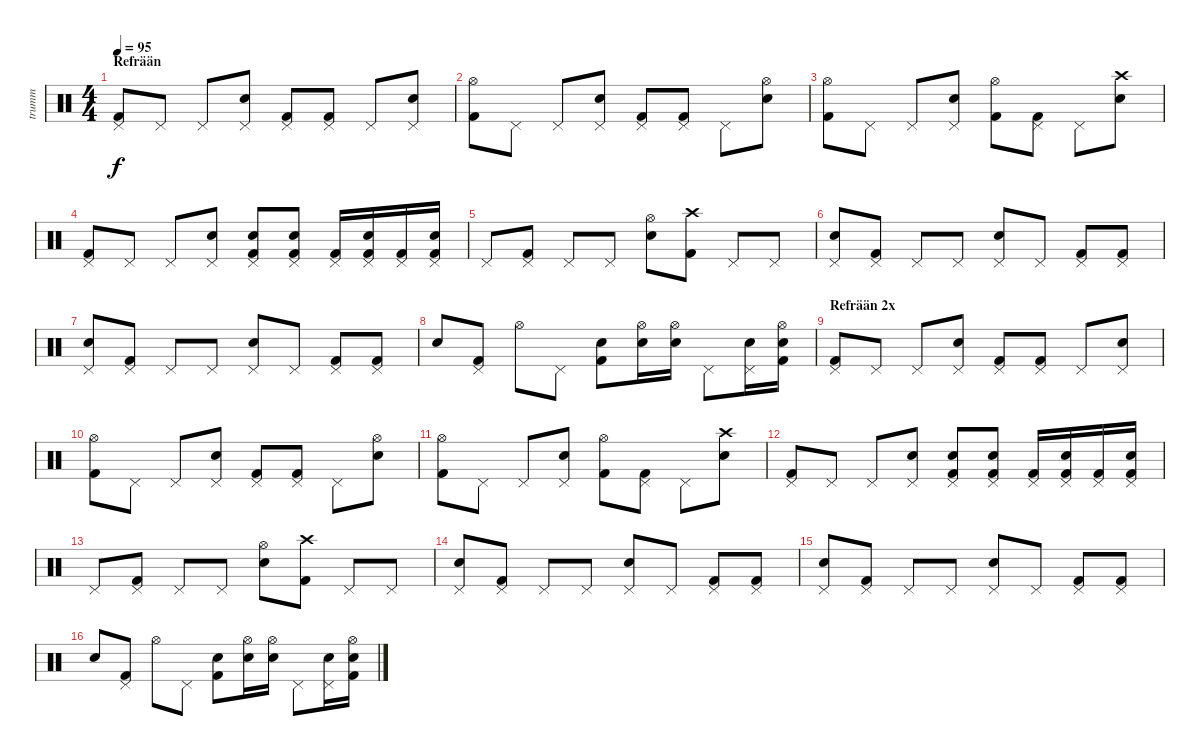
\track ("trumm" "trumm") {instrument percussion}
\staff {score}
\articulation defaults
\ts (4 4)
\section ("" "Refrään")
\tempo 95
\clef neutral
\ks c
("Pedal Hi-Hat (hit)" "Kick (hit) 2").8{dy f} "Pedal Hi-Hat (hit)".8 "Pedal Hi-Hat (hit)".8 ("Pedal Hi-Hat (hit)" "Snare (hit) 2").8 ("Pedal Hi-Hat (hit)" "Kick (hit) 2").8 ("Pedal Hi-Hat (hit)" "Kick (hit) 2").8 "Pedal Hi-Hat (hit)".8 ("Pedal Hi-Hat (hit)" "Snare (hit) 2").8 |
("Hi-Hat (open)" "Kick (hit) 2").8 "Pedal Hi-Hat (hit)".8 "Pedal Hi-Hat (hit)".8 ("Pedal Hi-Hat (hit)" "Snare (hit) 2").8 ("Pedal Hi-Hat (hit)" "Kick (hit) 2").8 ("Pedal Hi-Hat (hit)" "Kick (hit) 2").8 "Pedal Hi-Hat (hit)".8 ("Hi-Hat (open)" "Snare (hit) 2").8 |
("Hi-Hat (open)" "Kick (hit) 2").8 "Pedal Hi-Hat (hit)".8 "Pedal Hi-Hat (hit)".8 ("Pedal Hi-Hat (hit)" "Snare (hit) 2").8 ("Hi-Hat (open)" "Kick (hit) 2").8 ("Pedal Hi-Hat (hit)" "Kick (hit) 2").8 "Pedal Hi-Hat (hit)".8 ("Crash high (hit)" "Snare (hit) 2").8 |
("Pedal Hi-Hat (hit)" "Kick (hit) 2").8 "Pedal Hi-Hat (hit)".8 "Pedal Hi-Hat (hit)".8 ("Pedal Hi-Hat (hit)" "Snare (hit) 2").8 ("Pedal Hi-Hat (hit)" "Snare (hit) 2" "Kick (hit) 2").8 ("Pedal Hi-Hat (hit)" "Snare (hit) 2" "Kick (hit) 2").8 ("Pedal Hi-Hat (hit)" "Kick (hit) 2").16 ("Pedal Hi-Hat (hit)" "Snare (hit) 2" "Kick (hit) 2").16 ("Pedal Hi-Hat (hit)" "Kick (hit) 2").16 ("Pedal Hi-Hat (hit)" "Snare (hit) 2" "Kick (hit) 2").16 |
"Pedal Hi-Hat (hit)".8 ("Pedal Hi-Hat (hit)" "Kick (hit) 2").8 "Pedal Hi-Hat (hit)".8 "Pedal Hi-Hat (hit)".8 ("Hi-Hat (open)" "Snare (hit) 2").8 ("Crash high (hit)" "Kick (hit) 2").8 "Pedal Hi-Hat (hit)".8 "Pedal Hi-Hat (hit)".8 |
("Pedal Hi-Hat (hit)" "Snare (hit) 2").8 ("Pedal Hi-Hat (hit)" "Kick (hit) 2").8 "Pedal Hi-Hat (hit)".8 "Pedal Hi-Hat (hit)".8 ("Pedal Hi-Hat (hit)" "Snare (hit) 2").8 "Pedal Hi-Hat (hit)".8 ("Pedal Hi-Hat (hit)" "Kick (hit) 2").8 ("Pedal Hi-Hat (hit)" "Kick (hit) 2").8 |
("Pedal Hi-Hat (hit)" "Snare (hit) 2").8 ("Pedal Hi-Hat (hit)" "Kick (hit) 2").8 "Pedal Hi-Hat (hit)".8 "Pedal Hi-Hat (hit)".8 ("Pedal Hi-Hat (hit)" "Snare (hit) 2").8 "Pedal Hi-Hat (hit)".8 ("Pedal Hi-Hat (hit)" "Kick (hit) 2").8 ("Pedal Hi-Hat (hit)" "Kick (hit) 2").8 |
"Snare (hit) 2".8 ("Pedal Hi-Hat (hit)" "Kick (hit) 2").8 "Hi-Hat (open)".8 "Pedal Hi-Hat (hit)".8 ("Snare (hit) 2" "Kick (hit) 2").8 ("Hi-Hat (open)" "Snare (hit) 2").16 ("Hi-Hat (open)" "Snare (hit) 2").16 "Pedal Hi-Hat (hit)".8 ("Pedal Hi-Hat (hit)" "Snare (hit) 2").16 ("Hi-Hat (open)" "Snare (hit) 2" "Kick (hit) 2").16 |
\section ("" "Refrään 2x")
("Pedal Hi-Hat (hit)" "Kick (hit) 2").8 "Pedal Hi-Hat (hit)".8 "Pedal Hi-Hat (hit)".8 ("Pedal Hi-Hat (hit)" "Snare (hit) 2").8 ("Pedal Hi-Hat (hit)" "Kick (hit) 2").8 ("Pedal Hi-Hat (hit)" "Kick (hit) 2").8 "Pedal Hi-Hat (hit)".8 ("Pedal Hi-Hat (hit)" "Snare (hit) 2").8 |
("Hi-Hat (open)" "Kick (hit) 2").8 "Pedal Hi-Hat (hit)".8 "Pedal Hi-Hat (hit)".8 ("Pedal Hi-Hat (hit)" "Snare (hit) 2").8 ("Pedal Hi-Hat (hit)" "Kick (hit) 2").8 ("Pedal Hi-Hat (hit)" "Kick (hit) 2").8 "Pedal Hi-Hat (hit)".8 ("Hi-Hat (open)" "Snare (hit) 2").8 |
("Hi-Hat (open)" "Kick (hit) 2").8 "Pedal Hi-Hat (hit)".8 "Pedal Hi-Hat (hit)".8 ("Pedal Hi-Hat (hit)" "Snare (hit) 2").8 ("Hi-Hat (open)" "Kick (hit) 2").8 ("Pedal Hi-Hat (hit)" "Kick (hit) 2").8 "Pedal Hi-Hat (hit)".8 ("Crash high (hit)" "Snare (hit) 2").8 |
("Pedal Hi-Hat (hit)" "Kick (hit) 2").8 "Pedal Hi-Hat (hit)".8 "Pedal Hi-Hat (hit)".8 ("Pedal Hi-Hat (hit)" "Snare (hit) 2").8 ("Pedal Hi-Hat (hit)" "Snare (hit) 2" "Kick (hit) 2").8 ("Pedal Hi-Hat (hit)" "Snare (hit) 2" "Kick (hit) 2").8 ("Pedal Hi-Hat (hit)" "Kick (hit) 2").16 ("Pedal Hi-Hat (hit)" "Snare (hit) 2" "Kick (hit) 2").16 ("Pedal Hi-Hat (hit)" "Kick (hit) 2").16 ("Pedal Hi-Hat (hit)" "Snare (hit) 2" "Kick (hit) 2").16 |
"Pedal Hi-Hat (hit)".8 ("Pedal Hi-Hat (hit)" "Kick (hit) 2").8 "Pedal Hi-Hat (hit)".8 "Pedal Hi-Hat (hit)".8 ("Hi-Hat (open)" "Snare (hit) 2").8 ("Crash high (hit)" "Kick (hit) 2").8 "Pedal Hi-Hat (hit)".8 "Pedal Hi-Hat (hit)".8 |
("Pedal Hi-Hat (hit)" "Snare (hit) 2").8 ("Pedal Hi-Hat (hit)" "Kick (hit) 2").8 "Pedal Hi-Hat (hit)".8 "Pedal Hi-Hat (hit)".8 ("Pedal Hi-Hat (hit)" "Snare (hit) 2").8 "Pedal Hi-Hat (hit)".8 ("Pedal Hi-Hat (hit)" "Kick (hit) 2").8 ("Pedal Hi-Hat (hit)" "Kick (hit) 2").8 |
("Pedal Hi-Hat (hit)" "Snare (hit) 2").8 ("Pedal Hi-Hat (hit)" "Kick (hit) 2").8 "Pedal Hi-Hat (hit)".8 "Pedal Hi-Hat (hit)".8 ("Pedal Hi-Hat (hit)" "Snare (hit) 2").8 "Pedal Hi-Hat (hit)".8 ("Pedal Hi-Hat (hit)" "Kick (hit) 2").8 ("Pedal Hi-Hat (hit)" "Kick (hit) 2").8 |
"Snare (hit) 2".8 ("Pedal Hi-Hat (hit)" "Kick (hit) 2").8 "Hi-Hat (open)".8 "Pedal Hi-Hat (hit)".8 ("Snare (hit) 2" "Kick (hit) 2").8 ("Hi-Hat (open)" "Snare (hit) 2").16 ("Hi-Hat (open)" "Snare (hit) 2").16 "Pedal Hi-Hat (hit)".8 ("Pedal Hi-Hat (hit)" "Snare (hit) 2").16 ("Hi-Hat (open)" "Snare (hit) 2" "Kick (hit) 2").16
